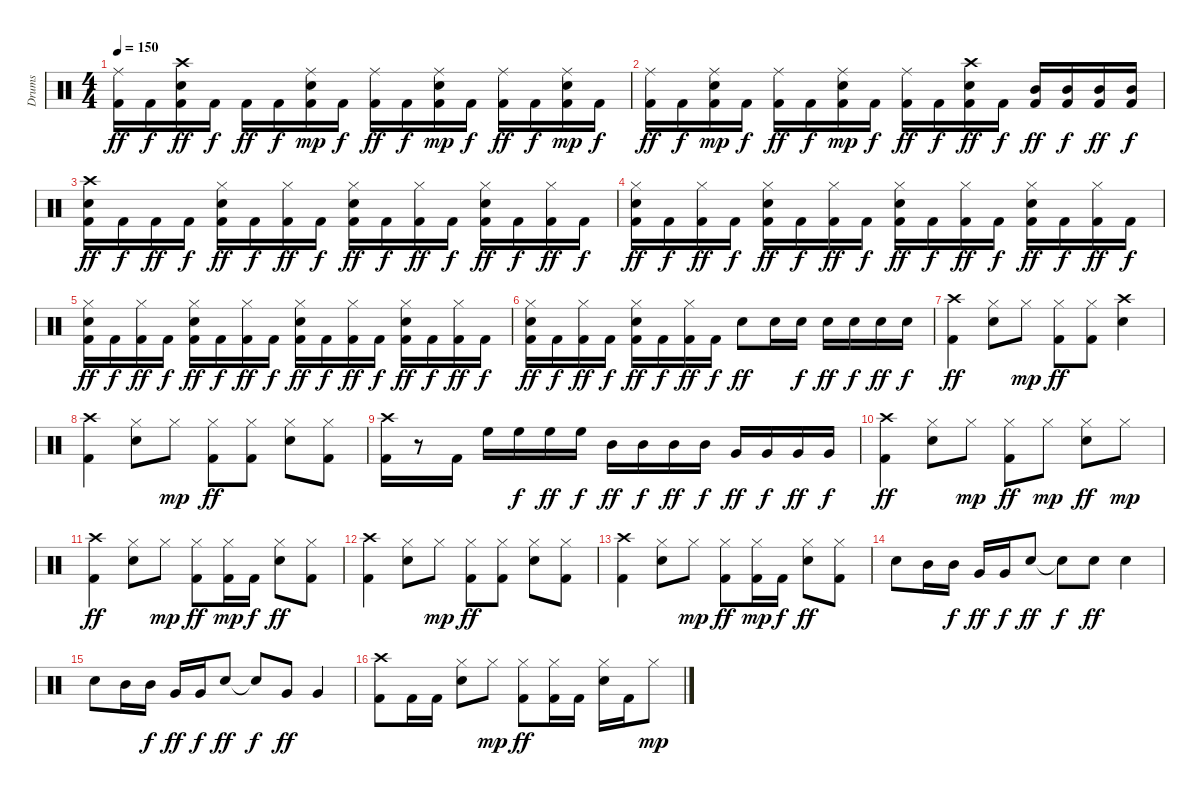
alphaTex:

\track ("Drums" "Drums") {instrument percussion}
\staff {score}
\articulation defaults
\ts (4 4)
\tempo 150
\clef neutral
\ks c
("Ride (middle)" "Kick (hit) 2").16{dy ff} "Kick (hit) 2".16{dy f} ("Snare (hit) 2" "Crash high (hit)" "Kick (hit) 2").16{dy ff} "Kick (hit) 2".16{dy f} "Kick (hit) 2".16{dy ff} "Kick (hit) 2".16{dy f} ("Kick (hit) 2" "Snare (hit) 2" "Ride (middle)").16{dy mp} "Kick (hit) 2".16{dy f} ("Ride (middle)" "Kick (hit) 2").16{dy ff} "Kick (hit) 2".16{dy f} ("Kick (hit) 2" "Snare (hit) 2" "Ride (middle)").16{dy mp} "Kick (hit) 2".16{dy f} ("Ride (middle)" "Kick (hit) 2").16{dy ff} "Kick (hit) 2".16{dy f} ("Kick (hit) 2" "Snare (hit) 2" "Ride (middle)").16{dy mp} "Kick (hit) 2".16{dy f} |
("Ride (middle)" "Kick (hit) 2").16{dy ff} "Kick (hit) 2".16{dy f} ("Kick (hit) 2" "Snare (hit) 2" "Ride (middle)").16{dy mp} "Kick (hit) 2".16{dy f} ("Ride (middle)" "Kick (hit) 2").16{dy ff} "Kick (hit) 2".16{dy f} ("Kick (hit) 2" "Snare (hit) 2" "Ride (middle)").16{dy mp} "Kick (hit) 2".16{dy f} ("Ride (middle)" "Kick (hit) 2").16{dy ff} "Kick (hit) 2".16{dy f} ("Kick (hit) 2" "Crash high (hit)" "Snare (hit) 2").16{dy ff} "Kick (hit) 2".16{dy f} ("Mid Tom (hit)" "Kick (hit) 2").16{dy ff} ("Mid Tom (hit)" "Kick (hit) 2").16{dy f} ("Mid Tom (hit)" "Kick (hit) 2").16{dy ff} ("Mid Tom (hit)" "Kick (hit) 2").16{dy f} |
("Crash high (hit)" "Snare (hit) 2" "Kick (hit) 2").16{dy ff} "Kick (hit) 2".16{dy f} "Kick (hit) 2".16{dy ff} "Kick (hit) 2".16{dy f} ("Kick (hit) 2" "Snare (hit) 2" "Hi-Hat (closed)").16{dy ff} "Kick (hit) 2".16{dy f} ("Hi-Hat (closed)" "Kick (hit) 2").16{dy ff} "Kick (hit) 2".16{dy f} ("Kick (hit) 2" "Snare (hit) 2" "Hi-Hat (closed)").16{dy ff} "Kick (hit) 2".16{dy f} ("Hi-Hat (closed)" "Kick (hit) 2").16{dy ff} "Kick (hit) 2".16{dy f} ("Kick (hit) 2" "Snare (hit) 2" "Hi-Hat (closed)").16{dy ff} "Kick (hit) 2".16{dy f} ("Hi-Hat (closed)" "Kick (hit) 2").16{dy ff} "Kick (hit) 2".16{dy f} |
("Kick (hit) 2" "Snare (hit) 2" "Hi-Hat (closed)").16{dy ff} "Kick (hit) 2".16{dy f} ("Hi-Hat (closed)" "Kick (hit) 2").16{dy ff} "Kick (hit) 2".16{dy f} ("Kick (hit) 2" "Snare (hit) 2" "Hi-Hat (closed)").16{dy ff} "Kick (hit) 2".16{dy f} ("Hi-Hat (closed)" "Kick (hit) 2").16{dy ff} "Kick (hit) 2".16{dy f} ("Kick (hit) 2" "Snare (hit) 2" "Hi-Hat (closed)").16{dy ff} "Kick (hit) 2".16{dy f} ("Hi-Hat (closed)" "Kick (hit) 2").16{dy ff} "Kick (hit) 2".16{dy f} ("Kick (hit) 2" "Snare (hit) 2" "Hi-Hat (closed)").16{dy ff} "Kick (hit) 2".16{dy f} ("Hi-Hat (closed)" "Kick (hit) 2").16{dy ff} "Kick (hit) 2".16{dy f} |
("Kick (hit) 2" "Snare (hit) 2" "Hi-Hat (closed)").16{dy ff} "Kick (hit) 2".16{dy f} ("Hi-Hat (closed)" "Kick (hit) 2").16{dy ff} "Kick (hit) 2".16{dy f} ("Kick (hit) 2" "Snare (hit) 2" "Hi-Hat (closed)").16{dy ff} "Kick (hit) 2".16{dy f} ("Hi-Hat (closed)" "Kick (hit) 2").16{dy ff} "Kick (hit) 2".16{dy f} ("Kick (hit) 2" "Snare (hit) 2" "Hi-Hat (closed)").16{dy ff} "Kick (hit) 2".16{dy f} ("Hi-Hat (closed)" "Kick (hit) 2").16{dy ff} "Kick (hit) 2".16{dy f} ("Kick (hit) 2" "Snare (hit) 2" "Hi-Hat (closed)").16{dy ff} "Kick (hit) 2".16{dy f} ("Hi-Hat (closed)" "Kick (hit) 2").16{dy ff} "Kick (hit) 2".16{dy f} |
("Kick (hit) 2" "Snare (hit) 2" "Hi-Hat (closed)").16{dy ff} "Kick (hit) 2".16{dy f} ("Hi-Hat (closed)" "Kick (hit) 2").16{dy ff} "Kick (hit) 2".16{dy f} ("Kick (hit) 2" "Snare (hit) 2" "Hi-Hat (closed)").16{dy ff} "Kick (hit) 2".16{dy f} ("Hi-Hat (closed)" "Kick (hit) 2").16{dy ff} "Kick (hit) 2".16{dy f} "Snare (hit) 2".8{dy ff} "Snare (hit) 2".16 "Snare (hit) 2".16{dy f} "Snare (hit) 2".16{dy ff} "Snare (hit) 2".16{dy f} "Snare (hit) 2".16{dy ff} "Snare (hit) 2".16{dy f} |
("Crash high (hit)" "Kick (hit) 2").4{dy ff} ("Hi-Hat (closed)" "Snare (hit) 2").8 "Hi-Hat (closed)".8{dy mp} ("Hi-Hat (closed)" "Kick (hit) 2").8{dy ff} ("Hi-Hat (closed)" "Kick (hit) 2").8 ("Crash high (hit)" "Snare (hit) 2").4 |
("Crash high (hit)" "Kick (hit) 2").4 ("Hi-Hat (closed)" "Snare (hit) 2").8 "Hi-Hat (closed)".8{dy mp} ("Hi-Hat (closed)" "Kick (hit) 2").8{dy ff} ("Hi-Hat (closed)" "Kick (hit) 2").8 ("Hi-Hat (closed)" "Snare (hit) 2").8 ("Hi-Hat (closed)" "Kick (hit) 2").8 |
("Crash high (hit)" "Kick (hit) 2").16 r.8 "Kick (hit) 2".16 "High Floor Tom (hit)".16 "High Floor Tom (hit)".16{dy f} "High Floor Tom (hit)".16{dy ff} "High Floor Tom (hit)".16{dy f} "Mid Tom (hit)".16{dy ff} "Mid Tom (hit)".16{dy f} "Mid Tom (hit)".16{dy ff} "Mid Tom (hit)".16{dy f} "Very Low Tom (hit)".16{dy ff} "Very Low Tom (hit)".16{dy f} "Very Low Tom (hit)".16{dy ff} "Very Low Tom (hit)".16{dy f} |
("Crash high (hit)" "Kick (hit) 2").4{dy ff} ("Hi-Hat (closed)" "Snare (hit) 2").8 "Hi-Hat (closed)".8{dy mp} ("Kick (hit) 2" "Hi-Hat (closed)").8{dy ff} "Hi-Hat (closed)".8{dy mp} ("Hi-Hat (closed)" "Snare (hit) 2").8{dy ff} "Hi-Hat (closed)".8{dy mp} |
("Crash high (hit)" "Kick (hit) 2").4{dy ff} ("Hi-Hat (closed)" "Snare (hit) 2").8 "Hi-Hat (closed)".8{dy mp} ("Hi-Hat (closed)" "Kick (hit) 2").8{dy ff} ("Kick (hit) 2" "Hi-Hat (closed)").16{dy mp} "Kick (hit) 2".16{dy f} ("Hi-Hat (closed)" "Snare (hit) 2").8{dy ff} ("Hi-Hat (closed)" "Kick (hit) 2").8 |
("Crash high (hit)" "Kick (hit) 2").4 ("Hi-Hat (closed)" "Snare (hit) 2").8 "Hi-Hat (closed)".8{dy mp} ("Hi-Hat (closed)" "Kick (hit) 2").8{dy ff} ("Hi-Hat (closed)" "Kick (hit) 2").8 ("Hi-Hat (closed)" "Snare (hit) 2").8 ("Hi-Hat (closed)" "Kick (hit) 2").8 |
("Crash high (hit)" "Kick (hit) 2").4 ("Hi-Hat (closed)" "Snare (hit) 2").8 "Hi-Hat (closed)".8{dy mp} ("Hi-Hat (closed)" "Kick (hit) 2").8{dy ff} ("Kick (hit) 2" "Hi-Hat (closed)").16{dy mp} "Kick (hit) 2".16{dy f} ("Hi-Hat (closed)" "Snare (hit) 2").8{dy ff} ("Hi-Hat (closed)" "Kick (hit) 2").8 |
"Snare (hit) 2".8 "Mid Tom (hit)".16 "Mid Tom (hit)".16{dy f} "Very Low Tom (hit)".16{dy ff} "Very Low Tom (hit)".16{dy f} "Snare (hit) 2".8{dy ff} "Snare (hit)"{t}.8{dy f} "Snare (hit) 2".8{dy ff} "Snare (hit) 2".4 |
"Snare (hit) 2".8 "Mid Tom (hit)".16 "Mid Tom (hit)".16{dy f} "Very Low Tom (hit)".16{dy ff} "Very Low Tom (hit)".16{dy f} "Snare (hit) 2".8{dy ff} "Snare (hit)"{t}.8{dy f} "Very Low Tom (hit)".8{dy ff} "Very Low Tom (hit)".4 |
("Crash high (hit)" "Kick (hit) 2").8 "Kick (hit) 2".16 "Kick (hit) 2".16 ("Hi-Hat (closed)" "Snare (hit) 2").8 "Hi-Hat (closed)".8{dy mp} ("Hi-Hat (closed)" "Kick (hit) 2").8{dy ff} ("Hi-Hat (closed)" "Kick (hit) 2").16 "Kick (hit) 2".16 ("Hi-Hat (closed)" "Snare (hit) 2").16 "Kick (hit) 2".16 "Hi-Hat (closed)".8{dy mp}
